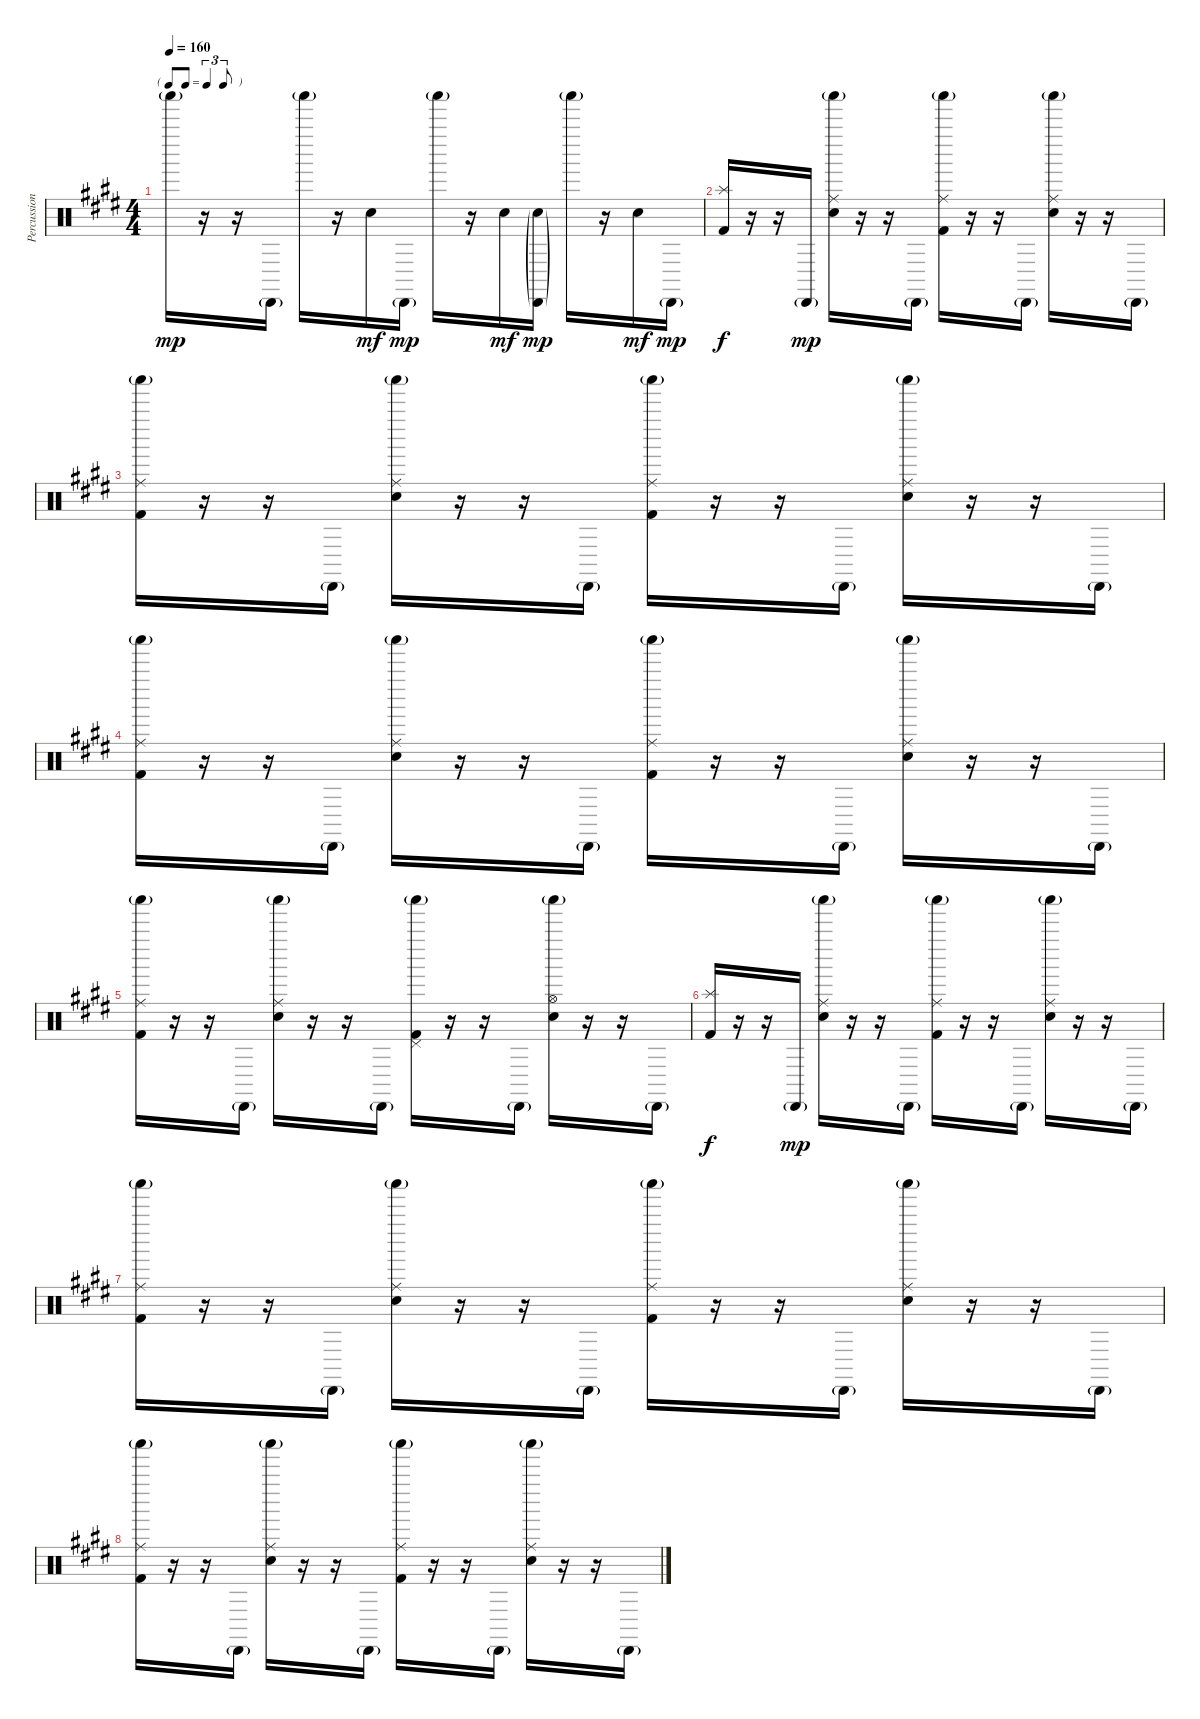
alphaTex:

\track ("Percussion" "Percussion") {instrument percussion}
\staff {score}
\articulation defaults
\ts (4 4)
\tf triplet8th
\tempo 160
\clef neutral
\ks e "Shaker (hit)"{g}.16{dy mp}
r.16 r.16 "Cabasa (hit)"{g}.16 "Shaker (hit)"{g}.16 r.16 "Electric Snare (hit)".16{dy mf} "Cabasa (hit)"{g}.16{dy mp} "Shaker (hit)"{g}.16 r.16 "Electric Snare (hit)".16{dy mf} ("Cabasa (hit)"{g} "Electric Snare (hit)"{g}).16{dy mp} "Shaker (hit)"{g}.16 r.16 "Electric Snare (hit)".16{dy mf} "Cabasa (hit)"{g}.16{dy mp} |
("Splash (hit)" "Kick (hit) 2").16{dy f} r.16 r.16 "Cabasa (hit)"{g}.16{dy mp} ("Shaker (hit)"{g} "Ride (middle)" "Electric Snare (hit)").16 r.16 r.16 "Cabasa (hit)"{g}.16 ("Shaker (hit)"{g} "Ride (middle)" "Kick (hit) 2").16 r.16 r.16 "Cabasa (hit)"{g}.16 ("Shaker (hit)"{g} "Ride (middle)" "Electric Snare (hit)").16 r.16 r.16 "Cabasa (hit)"{g}.16 |
("Shaker (hit)"{g} "Ride (middle)" "Kick (hit) 2").16 r.16 r.16 "Cabasa (hit)"{g}.16 ("Shaker (hit)"{g} "Ride (middle)" "Electric Snare (hit)").16 r.16 r.16 "Cabasa (hit)"{g}.16 ("Shaker (hit)"{g} "Ride (middle)" "Kick (hit) 2").16 r.16 r.16 "Cabasa (hit)"{g}.16 ("Shaker (hit)"{g} "Ride (middle)" "Electric Snare (hit)").16 r.16 r.16 "Cabasa (hit)"{g}.16 |
("Shaker (hit)"{g} "Ride (middle)" "Kick (hit) 2").16 r.16 r.16 "Cabasa (hit)"{g}.16 ("Shaker (hit)"{g} "Ride (middle)" "Electric Snare (hit)").16 r.16 r.16 "Cabasa (hit)"{g}.16 ("Shaker (hit)"{g} "Ride (middle)" "Kick (hit) 2").16 r.16 r.16 "Cabasa (hit)"{g}.16 ("Shaker (hit)"{g} "Ride (middle)" "Electric Snare (hit)").16 r.16 r.16 "Cabasa (hit)"{g}.16 |
("Shaker (hit)"{g} "Ride (middle)" "Kick (hit) 2").16 r.16 r.16 "Cabasa (hit)"{g}.16 ("Shaker (hit)"{g} "Ride (middle)" "Electric Snare (hit)").16 r.16 r.16 "Cabasa (hit)"{g}.16 ("Shaker (hit)"{g} "Pedal Hi-Hat (hit)" "Kick (hit) 2").16 r.16 r.16 "Cabasa (hit)"{g}.16 ("Shaker (hit)"{g} "Hi-Hat (open)" "Electric Snare (hit)").16 r.16 r.16 "Cabasa (hit)"{g}.16 |
("Splash (hit)" "Kick (hit) 2").16{dy f} r.16 r.16 "Cabasa (hit)"{g}.16{dy mp} ("Shaker (hit)"{g} "Ride (middle)" "Electric Snare (hit)").16 r.16 r.16 "Cabasa (hit)"{g}.16 ("Shaker (hit)"{g} "Ride (middle)" "Kick (hit) 2").16 r.16 r.16 "Cabasa (hit)"{g}.16 ("Shaker (hit)"{g} "Ride (middle)" "Electric Snare (hit)").16 r.16 r.16 "Cabasa (hit)"{g}.16 |
("Shaker (hit)"{g} "Ride (middle)" "Kick (hit) 2").16 r.16 r.16 "Cabasa (hit)"{g}.16 ("Shaker (hit)"{g} "Ride (middle)" "Electric Snare (hit)").16 r.16 r.16 "Cabasa (hit)"{g}.16 ("Shaker (hit)"{g} "Ride (middle)" "Kick (hit) 2").16 r.16 r.16 "Cabasa (hit)"{g}.16 ("Shaker (hit)"{g} "Ride (middle)" "Electric Snare (hit)").16 r.16 r.16 "Cabasa (hit)"{g}.16 |
("Shaker (hit)"{g} "Ride (middle)" "Kick (hit) 2").16 r.16 r.16 "Cabasa (hit)"{g}.16 ("Shaker (hit)"{g} "Ride (middle)" "Electric Snare (hit)").16 r.16 r.16 "Cabasa (hit)"{g}.16 ("Shaker (hit)"{g} "Ride (middle)" "Kick (hit) 2").16 r.16 r.16 "Cabasa (hit)"{g}.16 ("Shaker (hit)"{g} "Ride (middle)" "Electric Snare (hit)").16 r.16 r.16 "Cabasa (hit)"{g}.16
